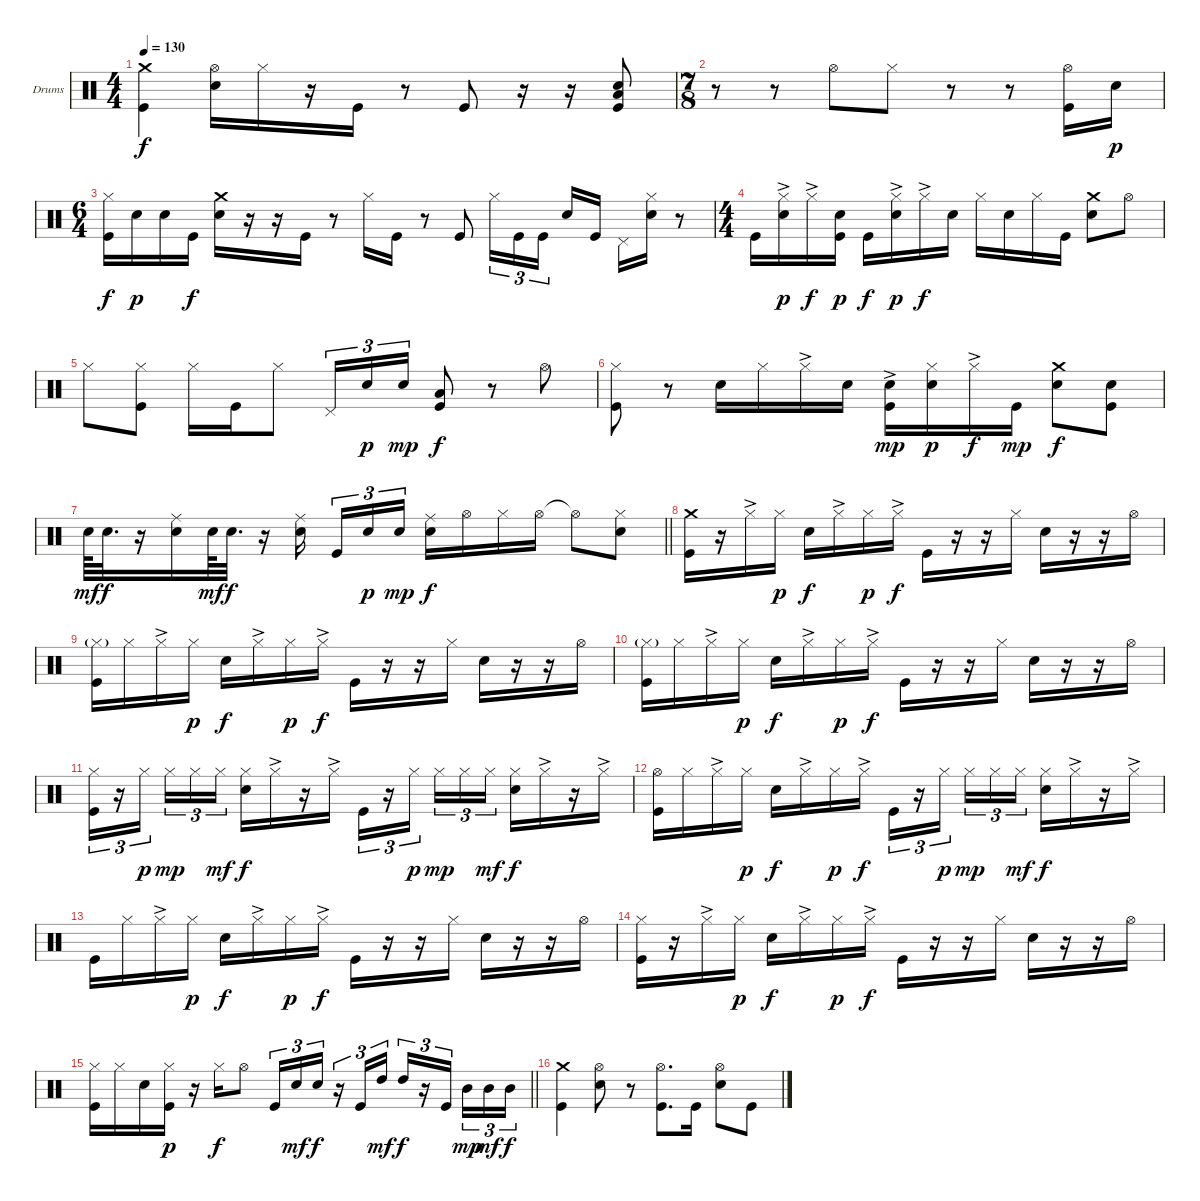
\defaultSystemsLayout 4
\bracketExtendMode groupsimilarinstruments
\firstSystemTrackNameOrientation horizontal
\otherSystemsTrackNameOrientation horizontal
\track ("Drumkit" "Drums") {instrument percussion}
\staff {score}
\articulation defaults
\ts (4 4)
\tempo 130
\clef neutral
\ks c
("Kick (hit)" "Crash medium (hit)").4{dy f} ("Hi-Hat (open)" "Snare (hit) 2").16 "Hi-Hat (closed)".16 r.16 "Kick (hit)".16 r.8 "Kick (hit)".8 r.16 r.16 ("Snare (hit) 2" "Kick (hit)" "Low Tom (hit)").8 |
\ts (7 8)
r.8 r.8 "Hi-Hat (open)".8 "Hi-Hat (closed)".8 r.8 r.8 ("Kick (hit)" "Hi-Hat (open)").16 "Snare (hit) 2".16{dy p} |
\ts (6 4)
("Kick (hit)" "Hi-Hat (closed)").16{dy f} "Snare (hit) 2".16{dy p} "Snare (hit) 2".16 "Kick (hit)".16{dy f} ("Snare (hit) 2" "Crash medium (hit)").16 r.16 r.16 "Kick (hit)".16 r.8 "Hi-Hat (closed)".16 "Kick (hit)".16 r.8 "Kick (hit)".8 "Hi-Hat (closed)".16{tu (3 2)} "Kick (hit)".16{tu (3 2)} "Kick (hit)".16{tu (3 2)} "Snare (hit) 2".16 "Kick (hit)".16 "Pedal Hi-Hat (hit)".16 ("Snare (hit) 2" "Hi-Hat (closed)").16 r.8 |
\ts (4 4)
"Kick (hit)".16 ("Hi-Hat (closed)"{ac} "Snare (hit) 2").16{dy p} "Hi-Hat (closed)"{ac}.16{dy f} ("Snare (hit) 2" "Kick (hit)").16{dy p} "Kick (hit)".16{dy f} ("Hi-Hat (closed)"{ac} "Snare (hit) 2").16{dy p} "Hi-Hat (closed)"{ac}.16{dy f} "Snare (hit) 2".16 "Hi-Hat (closed)".16 "Snare (hit) 2".16 "Hi-Hat (closed)".16 "Kick (hit)".16 ("Snare (hit) 2" "Crash medium (hit)").8 "Hi-Hat (open)".8 |
"Hi-Hat (closed)".8 ("Kick (hit)" "Hi-Hat (closed)").8 "Hi-Hat (closed)".16 "Kick (hit)".16 "Hi-Hat (closed)".8 "Pedal Hi-Hat (hit)".16{tu (3 2)} "Snare (hit) 2".16{tu (3 2) dy p} "Snare (hit) 2".16{tu (3 2) dy mp} ("Kick (hit)" "Low Tom (hit)").8{dy f} r.8 "Hi-Hat (open)".8 |
("Hi-Hat (closed)" "Kick (hit)").8 r.8 "Snare (hit) 2".16 "Hi-Hat (closed)".16 "Hi-Hat (closed)"{ac}.16 "Snare (hit) 2".16 ("Kick (hit)"{ac} "Snare (hit) 2").16{dy mp} ("Hi-Hat (closed)" "Snare (hit) 2").16{dy p} "Hi-Hat (closed)"{ac}.16{dy f} "Kick (hit)".16{dy mp} ("Snare (hit) 2" "Crash medium (hit)").8{dy f} ("Kick (hit)" "Snare (hit) 2").8 |
\barLineRight lightlight "Snare (hit) 2".64{dy mf} "Snare (hit) 2".32{d dy f}
r.16 ("Snare (hit) 2" "Ride (middle)").16 "Snare (hit) 2".64{dy mf} "Snare (hit) 2".32{d dy f} r.16 ("Snare (hit) 2" "Ride (middle)").16 "Kick (hit)".16{tu (3 2)} "Snare (hit) 2".16{tu (3 2) dy p} "Snare (hit) 2".16{tu (3 2) dy mp} ("Snare (hit) 2" "Ride (middle)").16{dy f} "Hi-Hat (open)".16 "Hi-Hat (closed)".16 "Hi-Hat (open)".16 "Hi-Hat (open)"{t}.8 ("Snare (hit) 2" "Hi-Hat (closed)").8 |
("Kick (hit)" "Crash medium (hit)").16 r.16 "Hi-Hat (closed)"{ac}.16 "Hi-Hat (closed)".16{dy p} "Snare (hit) 2".16{dy f} "Hi-Hat (closed)"{ac}.16 "Hi-Hat (closed)".16{dy p} "Hi-Hat (closed)"{ac}.16{dy f} "Kick (hit)".16 r.16 r.16 "Hi-Hat (closed)".16 "Snare (hit) 2".16 r.16 r.16 "Hi-Hat (open)".16 |
("Kick (hit)" "Hi-Hat (closed)"{g}).16 "Hi-Hat (closed)".16 "Hi-Hat (closed)"{ac}.16 "Hi-Hat (closed)".16{dy p} "Snare (hit) 2".16{dy f} "Hi-Hat (closed)"{ac}.16 "Hi-Hat (closed)".16{dy p} "Hi-Hat (closed)"{ac}.16{dy f} "Kick (hit)".16 r.16 r.16 "Hi-Hat (closed)".16 "Snare (hit) 2".16 r.16 r.16 "Hi-Hat (open)".16 |
("Kick (hit)" "Hi-Hat (closed)"{g}).16 "Hi-Hat (closed)".16 "Hi-Hat (closed)"{ac}.16 "Hi-Hat (closed)".16{dy p} "Snare (hit) 2".16{dy f} "Hi-Hat (closed)"{ac}.16 "Hi-Hat (closed)".16{dy p} "Hi-Hat (closed)"{ac}.16{dy f} "Kick (hit)".16 r.16 r.16 "Hi-Hat (closed)".16 "Snare (hit) 2".16 r.16 r.16 "Hi-Hat (open)".16 |
("Kick (hit)" "Hi-Hat (closed)").16{tu (3 2)} r.16{tu (3 2)} "Hi-Hat (closed)".16{tu (3 2) dy p} "Hi-Hat (closed)".16{tu (3 2) dy mp} "Hi-Hat (closed)".16{tu (3 2)} "Hi-Hat (closed)".16{tu (3 2) dy mf} ("Snare (hit) 2" "Hi-Hat (closed)").16{dy f} "Hi-Hat (closed)"{ac}.16 r.16 "Hi-Hat (closed)"{ac}.16 "Kick (hit)".16{tu (3 2)} r.16{tu (3 2)} "Hi-Hat (closed)".16{tu (3 2) dy p} "Hi-Hat (closed)".16{tu (3 2) dy mp} "Hi-Hat (closed)".16{tu (3 2)} "Hi-Hat (closed)".16{tu (3 2) dy mf} ("Snare (hit) 2" "Hi-Hat (closed)").16{dy f} "Hi-Hat (closed)"{ac}.16 r.16 "Hi-Hat (closed)"{ac}.16 |
("Kick (hit)" "Hi-Hat (open)").16 "Hi-Hat (closed)".16 "Hi-Hat (closed)"{ac}.16 "Hi-Hat (closed)".16{dy p} "Snare (hit) 2".16{dy f} "Hi-Hat (closed)"{ac}.16 "Hi-Hat (closed)".16{dy p} "Hi-Hat (closed)"{ac}.16{dy f} "Kick (hit)".16{tu (3 2)} r.16{tu (3 2)} "Hi-Hat (closed)".16{tu (3 2) dy p} "Hi-Hat (closed)".16{tu (3 2) dy mp} "Hi-Hat (closed)".16{tu (3 2)} "Hi-Hat (closed)".16{tu (3 2) dy mf} ("Snare (hit) 2" "Hi-Hat (closed)").16{dy f} "Hi-Hat (closed)"{ac}.16 r.16 "Hi-Hat (closed)"{ac}.16 |
"Kick (hit)".16 "Hi-Hat (closed)".16 "Hi-Hat (closed)"{ac}.16 "Hi-Hat (closed)".16{dy p} "Snare (hit) 2".16{dy f} "Hi-Hat (closed)"{ac}.16 "Hi-Hat (closed)".16{dy p} "Hi-Hat (closed)"{ac}.16{dy f} "Kick (hit)".16 r.16 r.16 "Hi-Hat (closed)".16 "Snare (hit) 2".16 r.16 r.16 "Hi-Hat (open)".16 |
("Kick (hit)" "Hi-Hat (closed)").16 r.16 "Hi-Hat (closed)"{ac}.16 "Hi-Hat (closed)".16{dy p} "Snare (hit) 2".16{dy f} "Hi-Hat (closed)"{ac}.16 "Hi-Hat (closed)".16{dy p} "Hi-Hat (closed)"{ac}.16{dy f} "Kick (hit)".16 r.16 r.16 "Hi-Hat (closed)".16 "Snare (hit) 2".16 r.16 r.16 "Hi-Hat (open)".16 |
\barLineRight lightlight
("Kick (hit)" "Hi-Hat (closed)").16 "Hi-Hat (closed)".16 "Snare (hit) 2".16 ("Hi-Hat (closed)" "Kick (hit)").16{dy p} r.16 "Hi-Hat (closed)".16{dy f} "Hi-Hat (open)".8 "Kick (hit)".16{tu (3 2)} "Snare (hit) 2".16{tu (3 2) dy mf} "Snare (hit) 2".16{tu (3 2) dy f} r.16{tu (3 2)} "Kick (hit)".16{tu (3 2)} "High Tom (hit)".16{tu (3 2) dy mf} "High Tom (hit)".16{tu (3 2) dy f} r.16{tu (3 2)} "Kick (hit)".16{tu (3 2)} "Mid Tom (hit)".16{tu (3 2) dy mp} "Mid Tom (hit)".16{tu (3 2) dy mf} "Mid Tom (hit)".16{tu (3 2) dy f} |
("Kick (hit)" "Crash medium (hit)").4 ("Hi-Hat (open)" "Snare (hit) 2").8 r.8 ("Hi-Hat (open)" "Kick (hit)").8{d} "Kick (hit)".16 ("Hi-Hat (open)" "Snare (hit) 2").8 "Kick (hit)".8
